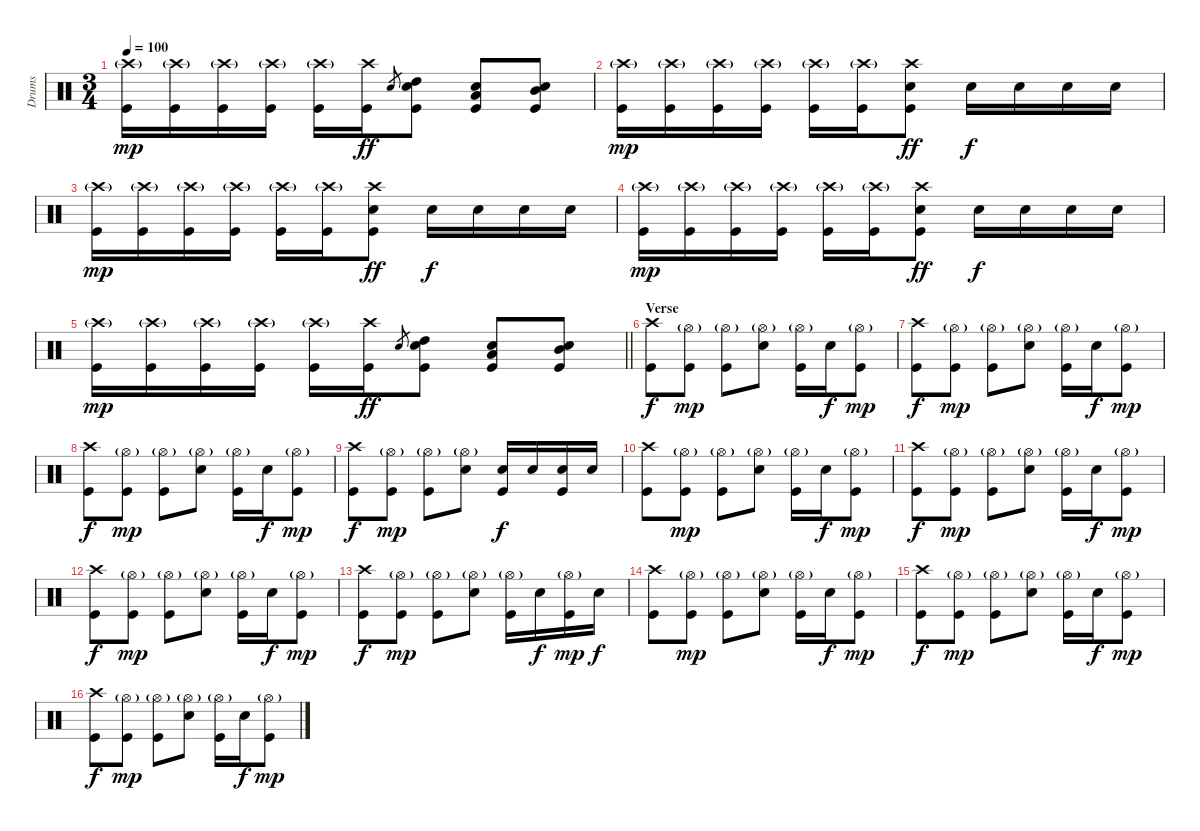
\track ("Drums" "Drums") {instrument percussion}
\staff {score}
\articulation defaults
\ts (3 4)
\tempo 100
\clef neutral
\ks c
("Crash high (hit)"{g} "Kick (hit)").16{dy mp} ("Crash high (hit)"{g} "Kick (hit)").16 ("Crash high (hit)"{g} "Kick (hit)").16 ("Crash high (hit)"{g} "Kick (hit)").16 ("Crash high (hit)"{g} "Kick (hit)").16 ("Crash high (hit)" "Kick (hit)").16{dy ff} "Electric Snare (hit)".8{gr} ("Electric Snare (hit)" "High Tom (hit)" "Kick (hit)").8 ("Electric Snare (hit)" "Low Tom (hit)" "Kick (hit)").8 ("Electric Snare (hit)" "Mid Tom (hit)" "Kick (hit)").8 |
("Crash high (hit)"{g} "Kick (hit)").16{dy mp} ("Crash high (hit)"{g} "Kick (hit)").16 ("Crash high (hit)"{g} "Kick (hit)").16 ("Crash high (hit)"{g} "Kick (hit)").16 ("Crash high (hit)"{g} "Kick (hit)").16 ("Crash high (hit)"{g} "Kick (hit)").16 ("Crash high (hit)" "Electric Snare (hit)" "Kick (hit)").8{dy ff} "Electric Snare (hit)".16{dy f} "Electric Snare (hit)".16 "Electric Snare (hit)".16 "Electric Snare (hit)".16 |
("Crash high (hit)"{g} "Kick (hit)").16{dy mp} ("Crash high (hit)"{g} "Kick (hit)").16 ("Crash high (hit)"{g} "Kick (hit)").16 ("Crash high (hit)"{g} "Kick (hit)").16 ("Crash high (hit)"{g} "Kick (hit)").16 ("Crash high (hit)"{g} "Kick (hit)").16 ("Crash high (hit)" "Electric Snare (hit)" "Kick (hit)").8{dy ff} "Electric Snare (hit)".16{dy f} "Electric Snare (hit)".16 "Electric Snare (hit)".16 "Electric Snare (hit)".16 |
("Crash high (hit)"{g} "Kick (hit)").16{dy mp} ("Crash high (hit)"{g} "Kick (hit)").16 ("Crash high (hit)"{g} "Kick (hit)").16 ("Crash high (hit)"{g} "Kick (hit)").16 ("Crash high (hit)"{g} "Kick (hit)").16 ("Crash high (hit)"{g} "Kick (hit)").16 ("Crash high (hit)" "Electric Snare (hit)" "Kick (hit)").8{dy ff} "Electric Snare (hit)".16{dy f} "Electric Snare (hit)".16 "Electric Snare (hit)".16 "Electric Snare (hit)".16 |
\barLineRight lightlight
("Crash high (hit)"{g} "Kick (hit)").16{dy mp} ("Crash high (hit)"{g} "Kick (hit)").16 ("Crash high (hit)"{g} "Kick (hit)").16 ("Crash high (hit)"{g} "Kick (hit)").16 ("Crash high (hit)"{g} "Kick (hit)").16 ("Crash high (hit)" "Kick (hit)").16{dy ff} "Electric Snare (hit)".8{gr} ("Electric Snare (hit)" "High Tom (hit)" "Kick (hit)").8 ("Electric Snare (hit)" "Low Tom (hit)" "Kick (hit)").8 ("Electric Snare (hit)" "Mid Tom (hit)" "Kick (hit)").8 |
\section ("" "Verse")
("Crash high (hit)" "Kick (hit)").8{dy f} ("Hi-Hat (open)"{g} "Kick (hit)").8{dy mp} ("Hi-Hat (open)"{g} "Kick (hit)").8 ("Hi-Hat (open)"{g} "Electric Snare (hit)").8 ("Hi-Hat (open)"{g} "Kick (hit)").16 "Electric Snare (hit)".16{dy f} ("Hi-Hat (open)"{g} "Kick (hit)").8{dy mp} |
("Crash high (hit)" "Kick (hit)").8{dy f} ("Hi-Hat (open)"{g} "Kick (hit)").8{dy mp} ("Hi-Hat (open)"{g} "Kick (hit)").8 ("Hi-Hat (open)"{g} "Electric Snare (hit)").8 ("Hi-Hat (open)"{g} "Kick (hit)").16 "Electric Snare (hit)".16{dy f} ("Hi-Hat (open)"{g} "Kick (hit)").8{dy mp} |
("Crash high (hit)" "Kick (hit)").8{dy f} ("Hi-Hat (open)"{g} "Kick (hit)").8{dy mp} ("Hi-Hat (open)"{g} "Kick (hit)").8 ("Hi-Hat (open)"{g} "Electric Snare (hit)").8 ("Hi-Hat (open)"{g} "Kick (hit)").16 "Electric Snare (hit)".16{dy f} ("Hi-Hat (open)"{g} "Kick (hit)").8{dy mp} |
("Crash high (hit)" "Kick (hit)").8{dy f} ("Hi-Hat (open)"{g} "Kick (hit)").8{dy mp} ("Hi-Hat (open)"{g} "Kick (hit)").8 ("Hi-Hat (open)"{g} "Electric Snare (hit)").8 ("Electric Snare (hit)" "Kick (hit)").16{dy f} "Electric Snare (hit)".16 ("Electric Snare (hit)" "Kick (hit)").16 "Electric Snare (hit)".16 |
("Crash high (hit)" "Kick (hit)").8 ("Hi-Hat (open)"{g} "Kick (hit)").8{dy mp} ("Hi-Hat (open)"{g} "Kick (hit)").8 ("Hi-Hat (open)"{g} "Electric Snare (hit)").8 ("Hi-Hat (open)"{g} "Kick (hit)").16 "Electric Snare (hit)".16{dy f} ("Hi-Hat (open)"{g} "Kick (hit)").8{dy mp} |
("Crash high (hit)" "Kick (hit)").8{dy f} ("Hi-Hat (open)"{g} "Kick (hit)").8{dy mp} ("Hi-Hat (open)"{g} "Kick (hit)").8 ("Hi-Hat (open)"{g} "Electric Snare (hit)").8 ("Hi-Hat (open)"{g} "Kick (hit)").16 "Electric Snare (hit)".16{dy f} ("Hi-Hat (open)"{g} "Kick (hit)").8{dy mp} |
("Crash high (hit)" "Kick (hit)").8{dy f} ("Hi-Hat (open)"{g} "Kick (hit)").8{dy mp} ("Hi-Hat (open)"{g} "Kick (hit)").8 ("Hi-Hat (open)"{g} "Electric Snare (hit)").8 ("Hi-Hat (open)"{g} "Kick (hit)").16 "Electric Snare (hit)".16{dy f} ("Hi-Hat (open)"{g} "Kick (hit)").8{dy mp} |
("Crash high (hit)" "Kick (hit)").8{dy f} ("Hi-Hat (open)"{g} "Kick (hit)").8{dy mp} ("Hi-Hat (open)"{g} "Kick (hit)").8 ("Hi-Hat (open)"{g} "Electric Snare (hit)").8 ("Hi-Hat (open)"{g} "Kick (hit)").16 "Electric Snare (hit)".16{dy f} ("Hi-Hat (open)"{g} "Kick (hit)").16{dy mp} "Electric Snare (hit)".16{dy f} |
("Crash high (hit)" "Kick (hit)").8 ("Hi-Hat (open)"{g} "Kick (hit)").8{dy mp} ("Hi-Hat (open)"{g} "Kick (hit)").8 ("Hi-Hat (open)"{g} "Electric Snare (hit)").8 ("Hi-Hat (open)"{g} "Kick (hit)").16 "Electric Snare (hit)".16{dy f} ("Hi-Hat (open)"{g} "Kick (hit)").8{dy mp} |
("Crash high (hit)" "Kick (hit)").8{dy f} ("Hi-Hat (open)"{g} "Kick (hit)").8{dy mp} ("Hi-Hat (open)"{g} "Kick (hit)").8 ("Hi-Hat (open)"{g} "Electric Snare (hit)").8 ("Hi-Hat (open)"{g} "Kick (hit)").16 "Electric Snare (hit)".16{dy f} ("Hi-Hat (open)"{g} "Kick (hit)").8{dy mp} |
("Crash high (hit)" "Kick (hit)").8{dy f} ("Hi-Hat (open)"{g} "Kick (hit)").8{dy mp} ("Hi-Hat (open)"{g} "Kick (hit)").8 ("Hi-Hat (open)"{g} "Electric Snare (hit)").8 ("Hi-Hat (open)"{g} "Kick (hit)").16 "Electric Snare (hit)".16{dy f} ("Hi-Hat (open)"{g} "Kick (hit)").8{dy mp}
